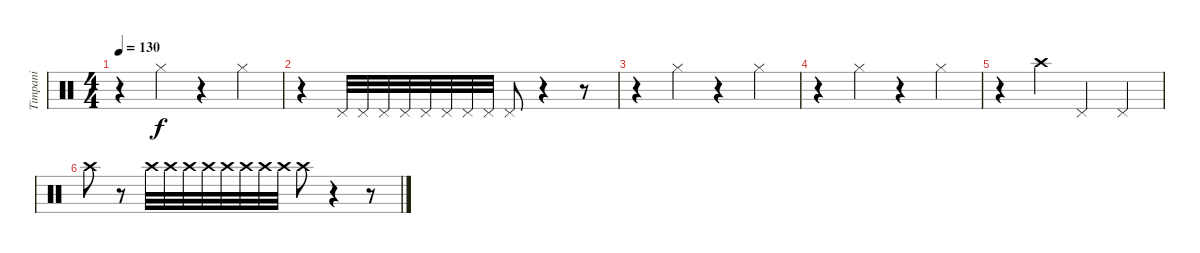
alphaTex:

\track ("Timpani" "Timpani") {instrument percussion}
\staff {score}
\articulation defaults
\ts (4 4)
\tempo 130
\clef neutral
\ks c
r.4{dy f} "Hi-Hat (closed)".4 r.4 "Hi-Hat (closed)".4 |
r.4 "Pedal Hi-Hat (hit)".32 "Pedal Hi-Hat (hit)".32 "Pedal Hi-Hat (hit)".32 "Pedal Hi-Hat (hit)".32 "Pedal Hi-Hat (hit)".32 "Pedal Hi-Hat (hit)".32 "Pedal Hi-Hat (hit)".32 "Pedal Hi-Hat (hit)".32 "Pedal Hi-Hat (hit)".8 r.4 r.8 |
r.4 "Hi-Hat (closed)".4 r.4 "Hi-Hat (closed)".4 |
r.4 "Hi-Hat (closed)".4 r.4 "Hi-Hat (closed)".4 |
r.4 "Crash high (hit)".4 "Pedal Hi-Hat (hit)".4 "Pedal Hi-Hat (hit)".4 |
"Crash high (hit)".8 r.8 "Crash high (hit)".32 "Crash high (hit)".32 "Crash high (hit)".32 "Crash high (hit)".32 "Crash high (hit)".32 "Crash high (hit)".32 "Crash high (hit)".32 "Crash high (hit)".32 "Crash high (hit)".8 r.4 r.8
